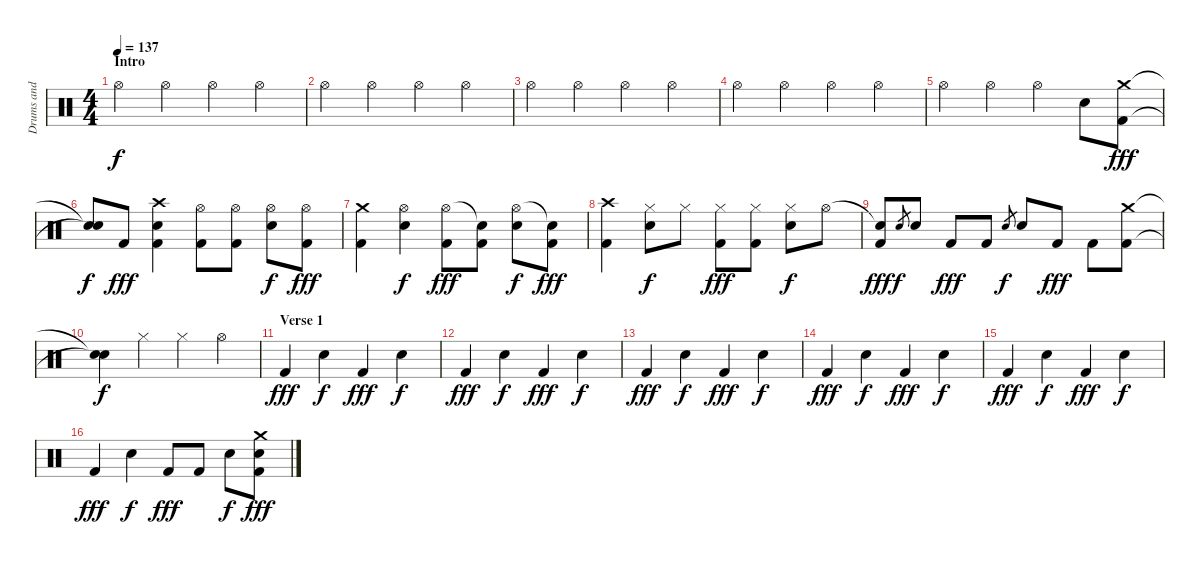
\track ("Drums and Percussion" "Drums and ") {instrument percussion}
\staff {score}
\articulation defaults
\ts (4 4)
\section ("" "Intro")
\tempo 137
\clef neutral
\ks c "Hi-Hat (open)".4{dy f} "Hi-Hat (open)".4 "Hi-Hat (open)".4 "Hi-Hat (open)".4
|
"Hi-Hat (open)".4 "Hi-Hat (open)".4 "Hi-Hat (open)".4 "Hi-Hat (open)".4 |
"Hi-Hat (open)".4 "Hi-Hat (open)".4 "Hi-Hat (open)".4 "Hi-Hat (open)".4 |
"Hi-Hat (open)".4 "Hi-Hat (open)".4 "Hi-Hat (open)".4 "Hi-Hat (open)".4 |
"Hi-Hat (open)".4 "Hi-Hat (open)".4 "Hi-Hat (open)".4 "Electric Snare (hit)".8 ("Crash medium (hit)" "Kick (hit) 2").8{dy fff} |
("Snare (hit)"{t} "Snare (hit)"{t}).8{dy f} "Kick (hit) 2".8{dy fff} ("Crash high (hit)" "Electric Snare (hit)" "Kick (hit) 2").4 ("Hi-Hat (open)" "Kick (hit) 2").8 ("Hi-Hat (open)" "Kick (hit) 2").8 ("Hi-Hat (open)" "Electric Snare (hit)").8{dy f} ("Hi-Hat (open)" "Kick (hit) 2").8{dy fff} |
("Crash medium (hit)" "Kick (hit) 2").4 ("Hi-Hat (open)" "Electric Snare (hit)").4{dy f} ("Hi-Hat (open)" "Kick (hit) 2").8{dy fff} ("Snare (hit)"{t} "Kick (hit) 2").8 ("Hi-Hat (open)" "Electric Snare (hit)").8{dy f} ("Snare (hit)"{t} "Kick (hit) 2").8{dy fff} |
("Crash high (hit)" "Kick (hit) 2").4 ("Hi-Hat (closed)" "Electric Snare (hit)").8{dy f} "Hi-Hat (closed)".8 ("Hi-Hat (closed)" "Kick (hit) 2").8{dy fff} ("Hi-Hat (closed)" "Kick (hit) 2").8 ("Hi-Hat (closed)" "Electric Snare (hit)").8{dy f} "Hi-Hat (open)".8 |
("Snare (hit)"{t} "Kick (hit) 2").8{dy fff} "Electric Snare (hit)".8{gr dy f} "Electric Snare (hit)".8 "Kick (hit) 2".8{dy fff} "Kick (hit) 2".8 "Electric Snare (hit)".8{gr dy f} "Electric Snare (hit)".8 "Kick (hit) 2".8{dy fff} "Kick (hit) 2".8 ("Crash medium (hit)" "Kick (hit) 2").8 |
("Snare (hit)"{t} "Snare (hit)"{t}).4{dy f} "Hi-Hat (closed)".4 "Hi-Hat (closed)".4 "Hi-Hat (open)".4 |
\section ("" "Verse 1")
"Kick (hit) 2".4{dy fff} "Electric Snare (hit)".4{dy f} "Kick (hit) 2".4{dy fff} "Electric Snare (hit)".4{dy f} |
"Kick (hit) 2".4{dy fff} "Electric Snare (hit)".4{dy f} "Kick (hit) 2".4{dy fff} "Electric Snare (hit)".4{dy f} |
"Kick (hit) 2".4{dy fff} "Electric Snare (hit)".4{dy f} "Kick (hit) 2".4{dy fff} "Electric Snare (hit)".4{dy f} |
"Kick (hit) 2".4{dy fff} "Electric Snare (hit)".4{dy f} "Kick (hit) 2".4{dy fff} "Electric Snare (hit)".4{dy f} |
"Kick (hit) 2".4{dy fff} "Electric Snare (hit)".4{dy f} "Kick (hit) 2".4{dy fff} "Electric Snare (hit)".4{dy f} |
"Kick (hit) 2".4{dy fff} "Electric Snare (hit)".4{dy f} "Kick (hit) 2".8{dy fff} "Kick (hit) 2".8 "Electric Snare (hit)".8{dy f} ("Crash medium (hit)" "Snare (hit)" "Kick (hit) 2").8{dy fff}
